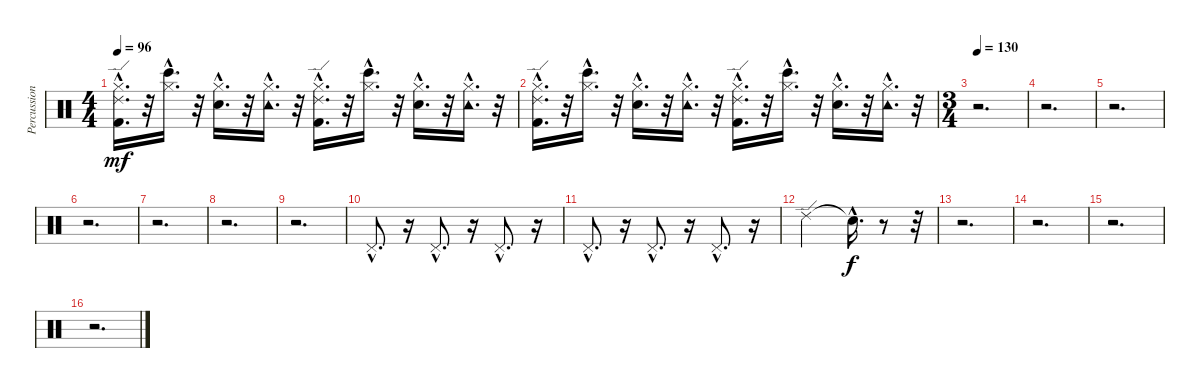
\track ("Percussion (Channel 10)" "Percussion") {instrument percussion}
\staff {score}
\articulation defaults
\ts (4 4)
\tempo 96
\clef neutral
\ks c
("Hi-Hat (closed)"{hac} "Kick (hit) 2"{hac} "Ride (edge) 2"{hac}).16{d dy mf} r.32 ("Hi-Hat (closed)"{hac} "Bongo High (hit)"{hac}).16{d} r.32 ("Hi-Hat (closed)"{hac} "Snare (hit) 2"{hac}).16{d} r.32 ("Hi-Hat (closed)"{hac} "Tambourine (hit)"{hac}).16{d} r.32 ("Hi-Hat (closed)"{hac} "Kick (hit) 2"{hac} "Ride (edge) 2"{hac}).16{d} r.32 ("Hi-Hat (closed)"{hac} "Bongo High (hit)"{hac}).16{d} r.32 ("Hi-Hat (closed)"{hac} "Snare (hit) 2"{hac}).16{d} r.32 ("Hi-Hat (closed)"{hac} "Tambourine (hit)"{hac}).16{d} r.32 |
("Ride (edge) 2"{hac} "Kick (hit) 2"{hac} "Hi-Hat (closed)"{hac}).16{d} r.32 ("Bongo High (hit)"{hac} "Hi-Hat (closed)"{hac}).16{d} r.32 ("Snare (hit) 2"{hac} "Hi-Hat (closed)"{hac}).16{d} r.32 ("Tambourine (hit)"{hac} "Hi-Hat (closed)"{hac}).16{d} r.32 ("Ride (edge) 2"{hac} "Kick (hit) 2"{hac} "Hi-Hat (closed)"{hac}).16{d} r.32 ("Bongo High (hit)"{hac} "Hi-Hat (closed)"{hac}).16{d} r.32 ("Snare (hit) 2"{hac} "Hi-Hat (closed)"{hac}).16{d} r.32 ("Tambourine (hit)"{hac} "Hi-Hat (closed)"{hac}).16{d} r.32 |
\ts (3 4)
\tempo 130
r.2{d} |
r.2{d} |
r.2{d} |
r.2{d} |
r.2{d} |
r.2{d} |
r.2{d} |
"Pedal Hi-Hat (hit)"{hac}.8{d} r.16 "Pedal Hi-Hat (hit)"{hac}.8{d} r.16 "Pedal Hi-Hat (hit)"{hac}.8{d} r.16 |
"Pedal Hi-Hat (hit)"{hac}.8{d} r.16 "Pedal Hi-Hat (hit)"{hac}.8{d} r.16 "Pedal Hi-Hat (hit)"{hac}.8{d} r.16 |
"Ride (edge) 2".2 "Snare (hit)"{hac t}.16{d dy f} r.8 r.32 |
r.2{d} |
r.2{d} |
r.2{d} |
r.2{d}
